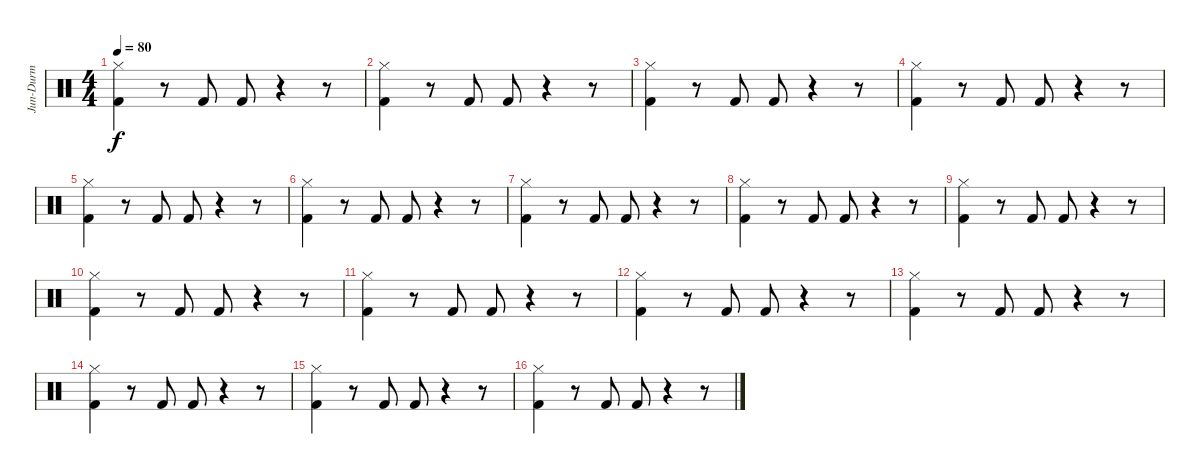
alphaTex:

\track ("Jun-Durm" "Jun-Durm") {instrument percussion}
\staff {score}
\articulation defaults
\ts (4 4)
\tempo 80
\clef neutral
\ks c
("Hi-Hat (closed)" "Kick (hit) 2").4{dy f} r.8 "Kick (hit) 2".8 "Kick (hit) 2".8 r.4 r.8 |
("Hi-Hat (closed)" "Kick (hit) 2").4 r.8 "Kick (hit) 2".8 "Kick (hit) 2".8 r.4 r.8 |
("Hi-Hat (closed)" "Kick (hit) 2").4 r.8 "Kick (hit) 2".8 "Kick (hit) 2".8 r.4 r.8 |
("Hi-Hat (closed)" "Kick (hit) 2").4 r.8 "Kick (hit) 2".8 "Kick (hit) 2".8 r.4 r.8 |
("Hi-Hat (closed)" "Kick (hit) 2").4 r.8 "Kick (hit) 2".8 "Kick (hit) 2".8 r.4 r.8 |
("Hi-Hat (closed)" "Kick (hit) 2").4 r.8 "Kick (hit) 2".8 "Kick (hit) 2".8 r.4 r.8 |
("Hi-Hat (closed)" "Kick (hit) 2").4 r.8 "Kick (hit) 2".8 "Kick (hit) 2".8 r.4 r.8 |
("Hi-Hat (closed)" "Kick (hit) 2").4 r.8 "Kick (hit) 2".8 "Kick (hit) 2".8 r.4 r.8 |
("Hi-Hat (closed)" "Kick (hit) 2").4 r.8 "Kick (hit) 2".8 "Kick (hit) 2".8 r.4 r.8 |
("Hi-Hat (closed)" "Kick (hit) 2").4 r.8 "Kick (hit) 2".8 "Kick (hit) 2".8 r.4 r.8 |
("Hi-Hat (closed)" "Kick (hit) 2").4 r.8 "Kick (hit) 2".8 "Kick (hit) 2".8 r.4 r.8 |
("Hi-Hat (closed)" "Kick (hit) 2").4 r.8 "Kick (hit) 2".8 "Kick (hit) 2".8 r.4 r.8 |
("Hi-Hat (closed)" "Kick (hit) 2").4 r.8 "Kick (hit) 2".8 "Kick (hit) 2".8 r.4 r.8 |
("Hi-Hat (closed)" "Kick (hit) 2").4 r.8 "Kick (hit) 2".8 "Kick (hit) 2".8 r.4 r.8 |
("Hi-Hat (closed)" "Kick (hit) 2").4 r.8 "Kick (hit) 2".8 "Kick (hit) 2".8 r.4 r.8 |
("Hi-Hat (closed)" "Kick (hit) 2").4 r.8 "Kick (hit) 2".8 "Kick (hit) 2".8 r.4 r.8
